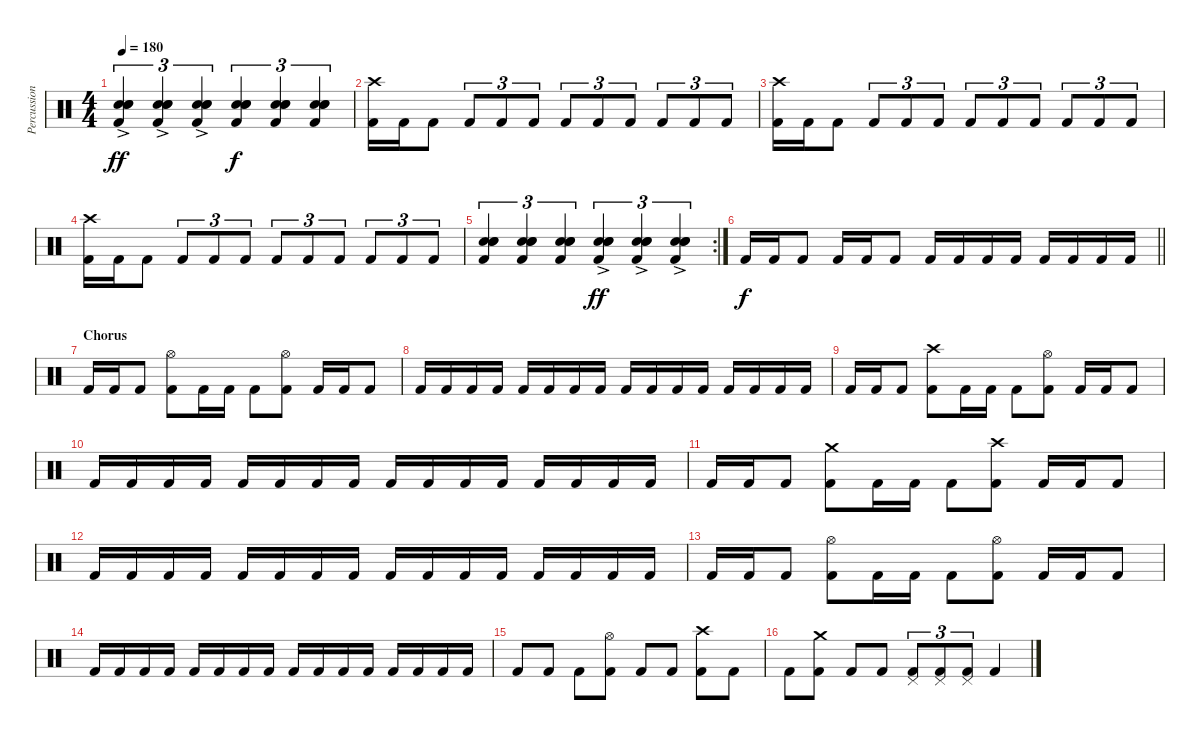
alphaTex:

\track ("Percussion" "Percussion") {instrument percussion}
\staff {score}
\articulation defaults
\ts (4 4)
\tempo 180
\clef neutral
\ks c
("Kick (hit) 2"{ac} "Snare (hit)"{ac} "Snare (hit)" "Snare (hit)").4{tu (3 2) dy ff} ("Kick (hit) 2"{ac} "Snare (hit)"{ac} "Snare (hit)" "Snare (hit)").4{tu (3 2)} ("Kick (hit) 2"{ac} "Snare (hit)"{ac} "Snare (hit)" "Snare (hit)").4{tu (3 2)} ("Kick (hit) 2" "Snare (hit)" "Snare (hit)" "Snare (hit)").4{tu (3 2) dy f} ("Kick (hit) 2" "Snare (hit)" "Snare (hit)" "Snare (hit)").4{tu (3 2)} ("Kick (hit) 2" "Snare (hit)" "Snare (hit)" "Snare (hit)").4{tu (3 2)} |
("Kick (hit) 2" "Crash high (hit)").16 "Kick (hit) 2".16 "Kick (hit) 2".8 "Kick (hit) 2".8{tu (3 2)} "Kick (hit) 2".8{tu (3 2)} "Kick (hit) 2".8{tu (3 2)} "Kick (hit) 2".8{tu (3 2)} "Kick (hit) 2".8{tu (3 2)} "Kick (hit) 2".8{tu (3 2)} "Kick (hit) 2".8{tu (3 2)} "Kick (hit) 2".8{tu (3 2)} "Kick (hit) 2".8{tu (3 2)} |
("Kick (hit) 2" "Crash high (hit)").16 "Kick (hit) 2".16 "Kick (hit) 2".8 "Kick (hit) 2".8{tu (3 2)} "Kick (hit) 2".8{tu (3 2)} "Kick (hit) 2".8{tu (3 2)} "Kick (hit) 2".8{tu (3 2)} "Kick (hit) 2".8{tu (3 2)} "Kick (hit) 2".8{tu (3 2)} "Kick (hit) 2".8{tu (3 2)} "Kick (hit) 2".8{tu (3 2)} "Kick (hit) 2".8{tu (3 2)} |
("Kick (hit) 2" "Crash high (hit)").16 "Kick (hit) 2".16 "Kick (hit) 2".8 "Kick (hit) 2".8{tu (3 2)} "Kick (hit) 2".8{tu (3 2)} "Kick (hit) 2".8{tu (3 2)} "Kick (hit) 2".8{tu (3 2)} "Kick (hit) 2".8{tu (3 2)} "Kick (hit) 2".8{tu (3 2)} "Kick (hit) 2".8{tu (3 2)} "Kick (hit) 2".8{tu (3 2)} "Kick (hit) 2".8{tu (3 2)} |
\rc 2
("Kick (hit) 2" "Snare (hit)" "Snare (hit)" "Snare (hit)").4{tu (3 2)} ("Kick (hit) 2" "Snare (hit)" "Snare (hit)" "Snare (hit)").4{tu (3 2)} ("Kick (hit) 2" "Snare (hit)" "Snare (hit)" "Snare (hit)").4{tu (3 2)} ("Kick (hit) 2"{ac} "Snare (hit)"{ac} "Snare (hit)"{ac} "Snare (hit)"{ac}).4{tu (3 2) dy ff} ("Kick (hit) 2"{ac} "Snare (hit)"{ac} "Snare (hit)"{ac} "Snare (hit)"{ac}).4{tu (3 2)} ("Kick (hit) 2"{ac} "Snare (hit)"{ac} "Snare (hit)"{ac} "Snare (hit)"{ac}).4{tu (3 2)} |
\barLineRight lightlight "Kick (hit) 2".16{dy f} "Kick (hit) 2".16 "Kick (hit) 2".8 "Kick (hit) 2".16 "Kick (hit) 2".16 "Kick (hit) 2".8 "Kick (hit) 2".16 "Kick (hit) 2".16 "Kick (hit) 2".16 "Kick (hit) 2".16 "Kick (hit) 2".16 "Kick (hit) 2".16 "Kick (hit) 2".16 "Kick (hit) 2".16
|
\section ("" "Chorus")
"Kick (hit) 2".16 "Kick (hit) 2".16 "Kick (hit) 2".8 ("Kick (hit) 2" "Hi-Hat (open)").8 "Kick (hit) 2".16 "Kick (hit) 2".16 "Kick (hit) 2".8 ("Kick (hit) 2" "Hi-Hat (open)").8 "Kick (hit) 2".16 "Kick (hit) 2".16 "Kick (hit) 2".8 |
"Kick (hit) 2".16 "Kick (hit) 2".16 "Kick (hit) 2".16 "Kick (hit) 2".16 "Kick (hit) 2".16 "Kick (hit) 2".16 "Kick (hit) 2".16 "Kick (hit) 2".16 "Kick (hit) 2".16 "Kick (hit) 2".16 "Kick (hit) 2".16 "Kick (hit) 2".16 "Kick (hit) 2".16 "Kick (hit) 2".16 "Kick (hit) 2".16 "Kick (hit) 2".16 |
"Kick (hit) 2".16 "Kick (hit) 2".16 "Kick (hit) 2".8 ("Kick (hit) 2" "Crash high (hit)").8 "Kick (hit) 2".16 "Kick (hit) 2".16 "Kick (hit) 2".8 ("Kick (hit) 2" "Hi-Hat (open)").8 "Kick (hit) 2".16 "Kick (hit) 2".16 "Kick (hit) 2".8 |
"Kick (hit) 2".16 "Kick (hit) 2".16 "Kick (hit) 2".16 "Kick (hit) 2".16 "Kick (hit) 2".16 "Kick (hit) 2".16 "Kick (hit) 2".16 "Kick (hit) 2".16 "Kick (hit) 2".16 "Kick (hit) 2".16 "Kick (hit) 2".16 "Kick (hit) 2".16 "Kick (hit) 2".16 "Kick (hit) 2".16 "Kick (hit) 2".16 "Kick (hit) 2".16 |
"Kick (hit) 2".16 "Kick (hit) 2".16 "Kick (hit) 2".8 ("Kick (hit) 2" "Crash medium (hit)").8 "Kick (hit) 2".16 "Kick (hit) 2".16 "Kick (hit) 2".8 ("Kick (hit) 2" "Crash high (hit)").8 "Kick (hit) 2".16 "Kick (hit) 2".16 "Kick (hit) 2".8 |
"Kick (hit) 2".16 "Kick (hit) 2".16 "Kick (hit) 2".16 "Kick (hit) 2".16 "Kick (hit) 2".16 "Kick (hit) 2".16 "Kick (hit) 2".16 "Kick (hit) 2".16 "Kick (hit) 2".16 "Kick (hit) 2".16 "Kick (hit) 2".16 "Kick (hit) 2".16 "Kick (hit) 2".16 "Kick (hit) 2".16 "Kick (hit) 2".16 "Kick (hit) 2".16 |
"Kick (hit) 2".16 "Kick (hit) 2".16 "Kick (hit) 2".8 ("Kick (hit) 2" "Hi-Hat (open)").8 "Kick (hit) 2".16 "Kick (hit) 2".16 "Kick (hit) 2".8 ("Kick (hit) 2" "Hi-Hat (open)").8 "Kick (hit) 2".16 "Kick (hit) 2".16 "Kick (hit) 2".8 |
"Kick (hit) 2".16 "Kick (hit) 2".16 "Kick (hit) 2".16 "Kick (hit) 2".16 "Kick (hit) 2".16 "Kick (hit) 2".16 "Kick (hit) 2".16 "Kick (hit) 2".16 "Kick (hit) 2".16 "Kick (hit) 2".16 "Kick (hit) 2".16 "Kick (hit) 2".16 "Kick (hit) 2".16 "Kick (hit) 2".16 "Kick (hit) 2".16 "Kick (hit) 2".16 |
"Kick (hit) 2".8 "Kick (hit) 2".8 "Kick (hit) 2".8 ("Kick (hit) 2" "Hi-Hat (open)").8 "Kick (hit) 2".8 "Kick (hit) 2".8 ("Kick (hit) 2" "Crash high (hit)").8 "Kick (hit) 2".8 |
"Kick (hit) 2".8 ("Kick (hit) 2" "Crash medium (hit)").8 "Kick (hit) 2".8 "Kick (hit) 2".8 ("Kick (hit) 2" "Pedal Hi-Hat (hit)").8{tu (3 2)} ("Kick (hit) 2" "Pedal Hi-Hat (hit)").8{tu (3 2)} ("Kick (hit) 2" "Pedal Hi-Hat (hit)").8{tu (3 2)} "Kick (hit) 2".4
